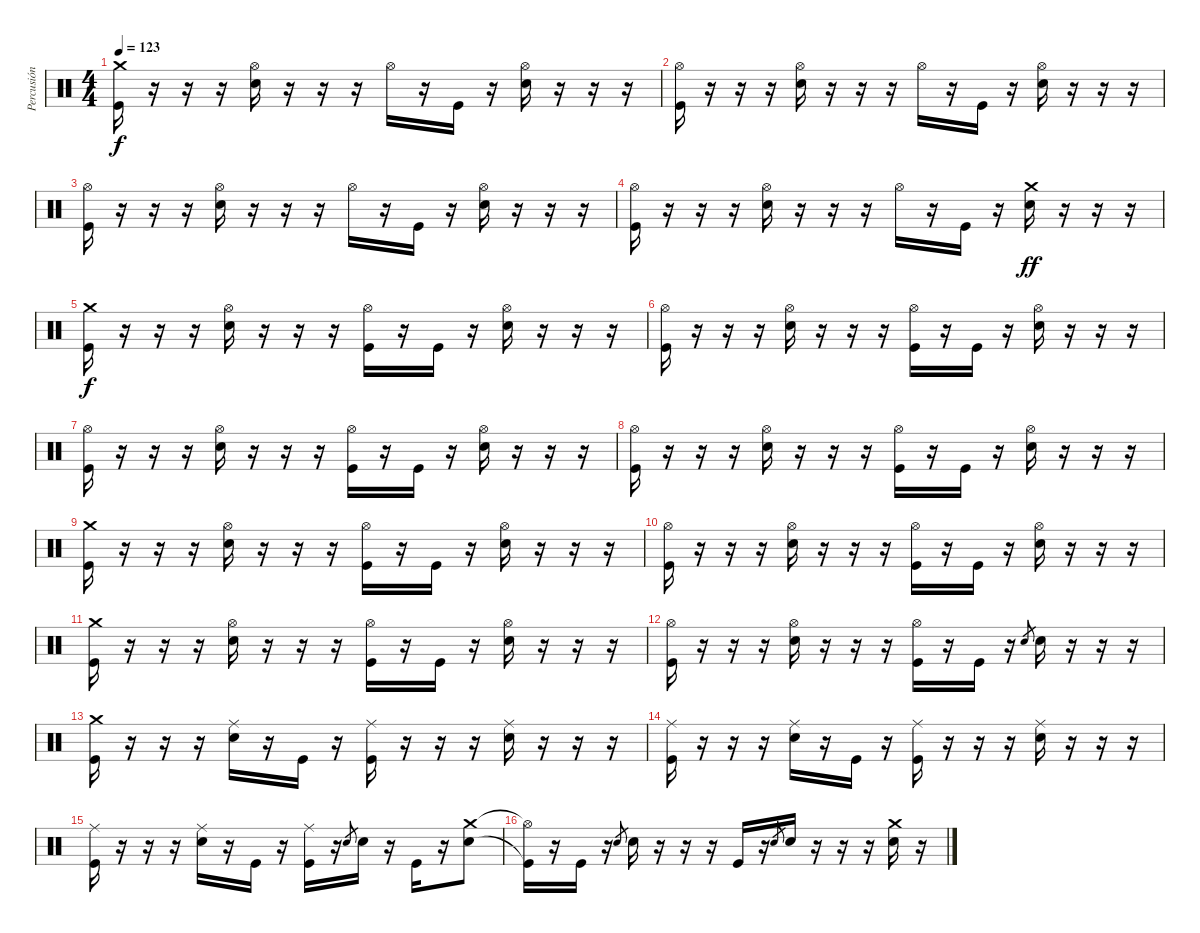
\track ("Percusión" "Percusión") {instrument percussion}
\staff {score}
\articulation defaults
\ts (4 4)
\tempo 123
\clef neutral
\ks c
("Crash medium (hit)" "Kick (hit)").16{dy f} r.16 r.16 r.16 ("Hi-Hat (open)" "Snare (hit) 2").16 r.16 r.16 r.16 "Hi-Hat (open)".16 r.16 "Kick (hit)".16 r.16 ("Hi-Hat (open)" "Snare (hit) 2").16 r.16 r.16 r.16 |
("Hi-Hat (open)" "Kick (hit)").16 r.16 r.16 r.16 ("Hi-Hat (open)" "Snare (hit) 2").16 r.16 r.16 r.16 "Hi-Hat (open)".16 r.16 "Kick (hit)".16 r.16 ("Hi-Hat (open)" "Snare (hit) 2").16 r.16 r.16 r.16 |
("Hi-Hat (open)" "Kick (hit)").16 r.16 r.16 r.16 ("Hi-Hat (open)" "Snare (hit) 2").16 r.16 r.16 r.16 "Hi-Hat (open)".16 r.16 "Kick (hit)".16 r.16 ("Hi-Hat (open)" "Snare (hit) 2").16 r.16 r.16 r.16 |
("Hi-Hat (open)" "Kick (hit)").16 r.16 r.16 r.16 ("Hi-Hat (open)" "Snare (hit) 2").16 r.16 r.16 r.16 "Hi-Hat (open)".16 r.16 "Kick (hit)".16 r.16 ("Crash medium (hit)" "Snare (hit) 2").16{dy ff} r.16 r.16 r.16 |
("Crash medium (hit)" "Kick (hit)").16{dy f} r.16 r.16 r.16 ("Hi-Hat (open)" "Snare (hit) 2").16 r.16 r.16 r.16 ("Hi-Hat (open)" "Kick (hit)").16 r.16 "Kick (hit)".16 r.16 ("Hi-Hat (open)" "Snare (hit) 2").16 r.16 r.16 r.16 |
("Hi-Hat (open)" "Kick (hit)").16 r.16 r.16 r.16 ("Hi-Hat (open)" "Snare (hit) 2").16 r.16 r.16 r.16 ("Hi-Hat (open)" "Kick (hit)").16 r.16 "Kick (hit)".16 r.16 ("Hi-Hat (open)" "Snare (hit) 2").16 r.16 r.16 r.16 |
("Hi-Hat (open)" "Kick (hit)").16 r.16 r.16 r.16 ("Hi-Hat (open)" "Snare (hit) 2").16 r.16 r.16 r.16 ("Hi-Hat (open)" "Kick (hit)").16 r.16 "Kick (hit)".16 r.16 ("Hi-Hat (open)" "Snare (hit) 2").16 r.16 r.16 r.16 |
("Hi-Hat (open)" "Kick (hit)").16 r.16 r.16 r.16 ("Hi-Hat (open)" "Snare (hit) 2").16 r.16 r.16 r.16 ("Hi-Hat (open)" "Kick (hit)").16 r.16 "Kick (hit)".16 r.16 ("Hi-Hat (open)" "Snare (hit) 2").16 r.16 r.16 r.16 |
("Crash medium (hit)" "Kick (hit)").16 r.16 r.16 r.16 ("Hi-Hat (open)" "Snare (hit) 2").16 r.16 r.16 r.16 ("Hi-Hat (open)" "Kick (hit)").16 r.16 "Kick (hit)".16 r.16 ("Hi-Hat (open)" "Snare (hit) 2").16 r.16 r.16 r.16 |
("Hi-Hat (open)" "Kick (hit)").16 r.16 r.16 r.16 ("Hi-Hat (open)" "Snare (hit) 2").16 r.16 r.16 r.16 ("Hi-Hat (open)" "Kick (hit)").16 r.16 "Kick (hit)".16 r.16 ("Hi-Hat (open)" "Snare (hit) 2").16 r.16 r.16 r.16 |
("Crash medium (hit)" "Kick (hit)").16 r.16 r.16 r.16 ("Hi-Hat (open)" "Snare (hit) 2").16 r.16 r.16 r.16 ("Hi-Hat (open)" "Kick (hit)").16 r.16 "Kick (hit)".16 r.16 ("Hi-Hat (open)" "Snare (hit) 2").16 r.16 r.16 r.16 |
("Hi-Hat (open)" "Kick (hit)").16 r.16 r.16 r.16 ("Hi-Hat (open)" "Snare (hit) 2").16 r.16 r.16 r.16 ("Hi-Hat (open)" "Kick (hit)").16 r.16 "Kick (hit)".16 r.16 "Snare (hit) 2".8{gr} "Snare (hit) 2".16 r.16 r.16 r.16 |
("Crash medium (hit)" "Kick (hit)").16 r.16 r.16 r.16 ("Ride (middle)" "Snare (hit) 2").16 r.16 "Kick (hit)".16 r.16 ("Ride (middle)" "Kick (hit)").16 r.16 r.16 r.16 ("Ride (middle)" "Snare (hit) 2").16 r.16 r.16 r.16 |
("Ride (middle)" "Kick (hit)").16 r.16 r.16 r.16 ("Ride (middle)" "Snare (hit) 2").16 r.16 "Kick (hit)".16 r.16 ("Ride (middle)" "Kick (hit)").16 r.16 r.16 r.16 ("Ride (middle)" "Snare (hit) 2").16 r.16 r.16 r.16 |
("Ride (middle)" "Kick (hit)").16 r.16 r.16 r.16 ("Ride (middle)" "Snare (hit) 2").16 r.16 "Kick (hit)".16 r.16 ("Ride (middle)" "Kick (hit)").16 r.16 "Snare (hit) 2".8{gr} "Snare (hit) 2".16 r.16 "Kick (hit)".16 r.16 ("Crash medium (hit)" "Snare (hit) 2").8 |
("Hi-Hat (open)"{t} "Kick (hit)"{t}).16 r.16 "Kick (hit)".16 r.16 "Snare (hit) 2".8{gr} "Snare (hit) 2".16 r.16 r.16 r.16 "Kick (hit)".16 r.16 "Snare (hit) 2".8{gr} "Snare (hit) 2".16 r.16 r.16 r.16 ("Crash medium (hit)" "Snare (hit) 2").16 r.16
